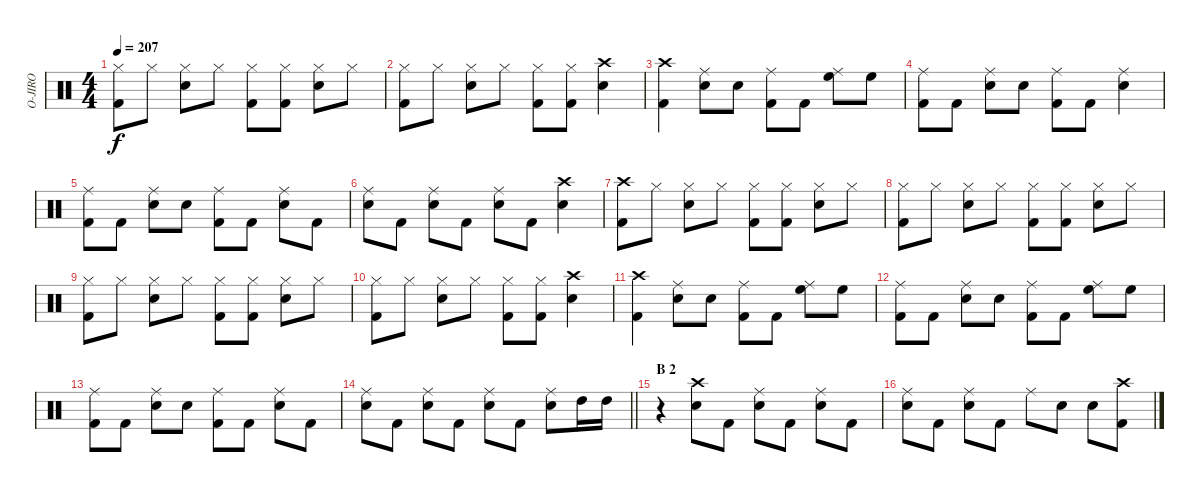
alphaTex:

\track ("O-JIRO" "O-JIRO") {instrument percussion}
\staff {score}
\articulation defaults
\ts (4 4)
\tempo 207
\clef neutral
\ks c
("Hi-Hat (closed)" "Kick (hit) 2").8{dy f} "Hi-Hat (closed)".8 ("Hi-Hat (closed)" "Snare (hit) 2").8 "Hi-Hat (closed)".8 ("Hi-Hat (closed)" "Kick (hit) 2").8 ("Hi-Hat (closed)" "Kick (hit) 2").8 ("Hi-Hat (closed)" "Snare (hit) 2").8 "Hi-Hat (closed)".8 |
("Hi-Hat (closed)" "Kick (hit) 2").8 "Hi-Hat (closed)".8 ("Hi-Hat (closed)" "Snare (hit) 2").8 "Hi-Hat (closed)".8 ("Hi-Hat (closed)" "Kick (hit) 2").8 ("Hi-Hat (closed)" "Kick (hit) 2").8 ("Crash high (hit)" "Snare (hit) 2").4 |
("Crash high (hit)" "Kick (hit) 2").4 ("Ride (middle)" "Snare (hit) 2").8 "Snare (hit) 2".8 ("Ride (middle)" "Kick (hit) 2").8 "Kick (hit) 2".8 ("Ride (middle)" "High Floor Tom (hit)").8 "High Floor Tom (hit)".8 |
("Kick (hit) 2" "Ride (middle)").8 "Kick (hit) 2".8 ("Ride (middle)" "Snare (hit) 2").8 "Snare (hit) 2".8 ("Ride (middle)" "Kick (hit) 2").8 "Kick (hit) 2".8 ("Ride (middle)" "Snare (hit) 2").4 |
("Kick (hit) 2" "Ride (middle)").8 "Kick (hit) 2".8 ("Ride (middle)" "Snare (hit) 2").8 "Snare (hit) 2".8 ("Ride (middle)" "Kick (hit) 2").8 "Kick (hit) 2".8 ("Ride (middle)" "Snare (hit) 2").8 "Kick (hit) 2".8 |
("Ride (middle)" "Snare (hit) 2").8 "Kick (hit) 2".8 ("Ride (middle)" "Snare (hit) 2").8 "Kick (hit) 2".8 ("Ride (middle)" "Snare (hit) 2").8 "Kick (hit) 2".8 ("Crash high (hit)" "Snare (hit) 2").4 |
("Crash high (hit)" "Kick (hit) 2").8 "Hi-Hat (closed)".8 ("Hi-Hat (closed)" "Snare (hit) 2").8 "Hi-Hat (closed)".8 ("Hi-Hat (closed)" "Kick (hit) 2").8 ("Hi-Hat (closed)" "Kick (hit) 2").8 ("Hi-Hat (closed)" "Snare (hit) 2").8 "Hi-Hat (closed)".8 |
("Hi-Hat (closed)" "Kick (hit) 2").8 "Hi-Hat (closed)".8 ("Hi-Hat (closed)" "Snare (hit) 2").8 "Hi-Hat (closed)".8 ("Hi-Hat (closed)" "Kick (hit) 2").8 ("Hi-Hat (closed)" "Kick (hit) 2").8 ("Hi-Hat (closed)" "Snare (hit) 2").8 "Hi-Hat (closed)".8 |
("Hi-Hat (closed)" "Kick (hit) 2").8 "Hi-Hat (closed)".8 ("Hi-Hat (closed)" "Snare (hit) 2").8 "Hi-Hat (closed)".8 ("Hi-Hat (closed)" "Kick (hit) 2").8 ("Hi-Hat (closed)" "Kick (hit) 2").8 ("Hi-Hat (closed)" "Snare (hit) 2").8 "Hi-Hat (closed)".8 |
("Hi-Hat (closed)" "Kick (hit) 2").8 "Hi-Hat (closed)".8 ("Hi-Hat (closed)" "Snare (hit) 2").8 "Hi-Hat (closed)".8 ("Hi-Hat (closed)" "Kick (hit) 2").8 ("Hi-Hat (closed)" "Kick (hit) 2").8 ("Crash high (hit)" "Snare (hit) 2").4 |
("Crash high (hit)" "Kick (hit) 2").4 ("Ride (middle)" "Snare (hit) 2").8 "Snare (hit) 2".8 ("Ride (middle)" "Kick (hit) 2").8 "Kick (hit) 2".8 ("Ride (middle)" "High Floor Tom (hit)").8 "High Floor Tom (hit)".8 |
("Kick (hit) 2" "Ride (middle)").8 "Kick (hit) 2".8 ("Ride (middle)" "Snare (hit) 2").8 "Snare (hit) 2".8 ("Ride (middle)" "Kick (hit) 2").8 "Kick (hit) 2".8 ("Ride (middle)" "High Floor Tom (hit)").8 "High Floor Tom (hit)".8 |
("Kick (hit) 2" "Ride (middle)").8 "Kick (hit) 2".8 ("Ride (middle)" "Snare (hit) 2").8 "Snare (hit) 2".8 ("Ride (middle)" "Kick (hit) 2").8 "Kick (hit) 2".8 ("Ride (middle)" "Snare (hit) 2").8 "Kick (hit) 2".8 |
\barLineRight lightlight
("Ride (middle)" "Snare (hit) 2").8 "Kick (hit) 2".8 ("Ride (middle)" "Snare (hit) 2").8 "Kick (hit) 2".8 ("Ride (middle)" "Snare (hit) 2").8 "Kick (hit) 2".8 ("Ride (middle)" "Snare (hit) 2").8 "High Tom (hit)".16 "High Tom (hit)".16 |
\section ("" "B 2")
r.4 ("Crash high (hit)" "Snare (hit) 2").8 "Kick (hit) 2".8 ("Ride (middle)" "Snare (hit) 2").8 "Kick (hit) 2".8 ("Ride (middle)" "Snare (hit) 2").8 "Kick (hit) 2".8 |
("Ride (middle)" "Snare (hit) 2").8 "Kick (hit) 2".8 ("Ride (middle)" "Snare (hit) 2").8 "Kick (hit) 2".8 "Ride (middle)".8 "Snare (hit) 2".8 "Snare (hit) 2".8 ("Crash high (hit)" "Kick (hit) 2").8
